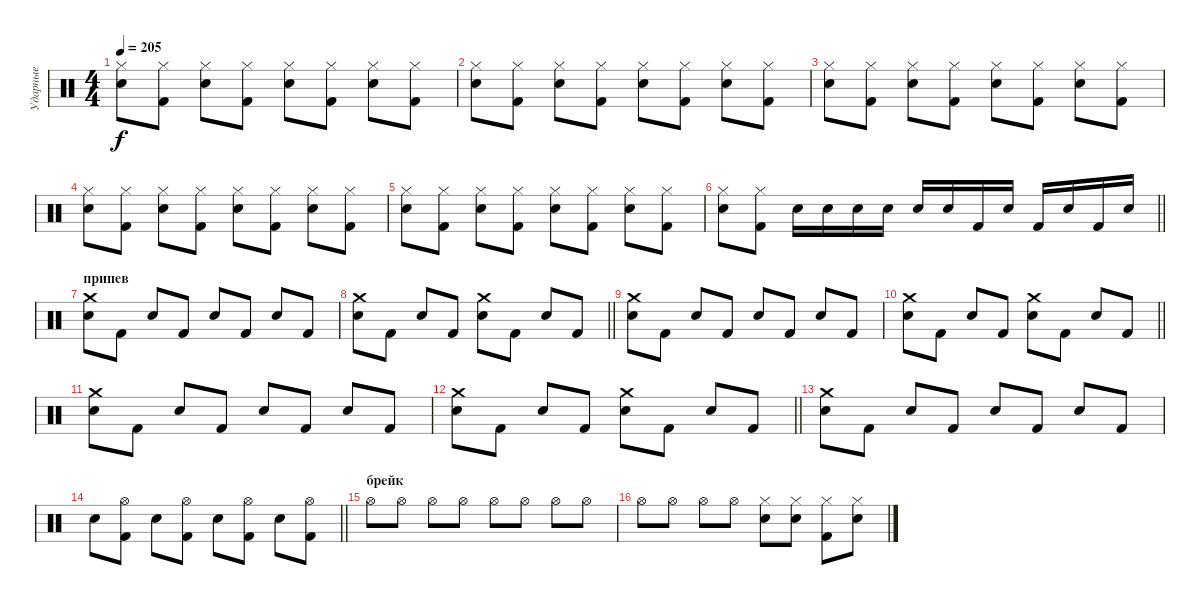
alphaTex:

\track ("Ударные" "Ударные") {instrument percussion}
\staff {score}
\articulation defaults
\ts (4 4)
\tempo 205
\clef neutral
\ks c
("Electric Snare (hit)" "Hi-Hat (closed)").8{dy f} ("Kick (hit) 2" "Hi-Hat (closed)").8 ("Electric Snare (hit)" "Hi-Hat (closed)").8 ("Kick (hit) 2" "Hi-Hat (closed)").8 ("Electric Snare (hit)" "Hi-Hat (closed)").8 ("Kick (hit) 2" "Hi-Hat (closed)").8 ("Electric Snare (hit)" "Hi-Hat (closed)").8 ("Kick (hit) 2" "Hi-Hat (closed)").8 |
("Electric Snare (hit)" "Hi-Hat (closed)").8 ("Kick (hit) 2" "Hi-Hat (closed)").8 ("Electric Snare (hit)" "Hi-Hat (closed)").8 ("Kick (hit) 2" "Hi-Hat (closed)").8 ("Electric Snare (hit)" "Hi-Hat (closed)").8 ("Kick (hit) 2" "Hi-Hat (closed)").8 ("Electric Snare (hit)" "Hi-Hat (closed)").8 ("Kick (hit) 2" "Hi-Hat (closed)").8 |
("Electric Snare (hit)" "Hi-Hat (closed)").8 ("Kick (hit) 2" "Hi-Hat (closed)").8 ("Electric Snare (hit)" "Hi-Hat (closed)").8 ("Kick (hit) 2" "Hi-Hat (closed)").8 ("Electric Snare (hit)" "Hi-Hat (closed)").8 ("Kick (hit) 2" "Hi-Hat (closed)").8 ("Electric Snare (hit)" "Hi-Hat (closed)").8 ("Kick (hit) 2" "Hi-Hat (closed)").8 |
("Electric Snare (hit)" "Hi-Hat (closed)").8 ("Kick (hit) 2" "Hi-Hat (closed)").8 ("Electric Snare (hit)" "Hi-Hat (closed)").8 ("Kick (hit) 2" "Hi-Hat (closed)").8 ("Electric Snare (hit)" "Hi-Hat (closed)").8 ("Kick (hit) 2" "Hi-Hat (closed)").8 ("Electric Snare (hit)" "Hi-Hat (closed)").8 ("Kick (hit) 2" "Hi-Hat (closed)").8 |
("Electric Snare (hit)" "Hi-Hat (closed)").8 ("Kick (hit) 2" "Hi-Hat (closed)").8 ("Electric Snare (hit)" "Hi-Hat (closed)").8 ("Kick (hit) 2" "Hi-Hat (closed)").8 ("Electric Snare (hit)" "Hi-Hat (closed)").8 ("Kick (hit) 2" "Hi-Hat (closed)").8 ("Electric Snare (hit)" "Hi-Hat (closed)").8 ("Kick (hit) 2" "Hi-Hat (closed)").8 |
\barLineRight lightlight
("Electric Snare (hit)" "Hi-Hat (closed)").8 ("Kick (hit) 2" "Hi-Hat (closed)").8 "Electric Snare (hit)".16 "Snare (hit) 2".16 "Electric Snare (hit)".16 "Snare (hit) 2".16 "Electric Snare (hit)".16 "Snare (hit) 2".16 "Kick (hit) 2".16 "Snare (hit) 2".16 "Kick (hit) 2".16 "Snare (hit) 2".16 "Kick (hit) 2".16 "Snare (hit) 2".16 |
\section ("" "припев")
("Electric Snare (hit)" "Crash medium (hit)").8 "Kick (hit) 2".8 "Electric Snare (hit)".8 "Kick (hit) 2".8 "Electric Snare (hit)".8 "Kick (hit) 2".8 "Electric Snare (hit)".8 "Kick (hit) 2".8 |
\barLineRight lightlight
("Electric Snare (hit)" "Crash medium (hit)").8 "Kick (hit) 2".8 "Electric Snare (hit)".8 "Kick (hit) 2".8 ("Electric Snare (hit)" "Crash medium (hit)").8 "Kick (hit) 2".8 "Electric Snare (hit)".8 "Kick (hit) 2".8 |
("Electric Snare (hit)" "Crash medium (hit)").8 "Kick (hit) 2".8 "Electric Snare (hit)".8 "Kick (hit) 2".8 "Electric Snare (hit)".8 "Kick (hit) 2".8 "Electric Snare (hit)".8 "Kick (hit) 2".8 |
\barLineRight lightlight
("Electric Snare (hit)" "Crash medium (hit)").8 "Kick (hit) 2".8 "Electric Snare (hit)".8 "Kick (hit) 2".8 ("Electric Snare (hit)" "Crash medium (hit)").8 "Kick (hit) 2".8 "Electric Snare (hit)".8 "Kick (hit) 2".8 |
("Electric Snare (hit)" "Crash medium (hit)").8 "Kick (hit) 2".8 "Electric Snare (hit)".8 "Kick (hit) 2".8 "Electric Snare (hit)".8 "Kick (hit) 2".8 "Electric Snare (hit)".8 "Kick (hit) 2".8 |
\barLineRight lightlight
("Electric Snare (hit)" "Crash medium (hit)").8 "Kick (hit) 2".8 "Electric Snare (hit)".8 "Kick (hit) 2".8 ("Electric Snare (hit)" "Crash medium (hit)").8 "Kick (hit) 2".8 "Electric Snare (hit)".8 "Kick (hit) 2".8 |
("Electric Snare (hit)" "Crash medium (hit)").8 "Kick (hit) 2".8 "Electric Snare (hit)".8 "Kick (hit) 2".8 "Electric Snare (hit)".8 "Kick (hit) 2".8 "Electric Snare (hit)".8 "Kick (hit) 2".8 |
\barLineRight lightlight "Electric Snare (hit)".8
("Kick (hit) 2" "Hi-Hat (open)").8 "Electric Snare (hit)".8 ("Kick (hit) 2" "Hi-Hat (open)").8 "Electric Snare (hit)".8 ("Kick (hit) 2" "Hi-Hat (open)").8 "Electric Snare (hit)".8 ("Kick (hit) 2" "Hi-Hat (open)").8 |
\section ("" "брейк")
"Hi-Hat (open)".8 "Hi-Hat (open)".8 "Hi-Hat (open)".8 "Hi-Hat (open)".8 "Hi-Hat (open)".8 "Hi-Hat (open)".8 "Hi-Hat (open)".8 "Hi-Hat (open)".8 |
"Hi-Hat (open)".8 "Hi-Hat (open)".8 "Hi-Hat (open)".8 "Hi-Hat (open)".8 ("Snare (hit) 2" "Hi-Hat (closed)").8 ("Electric Snare (hit)" "Hi-Hat (closed)").8 ("Kick (hit) 2" "Hi-Hat (closed)").8 ("Electric Snare (hit)" "Hi-Hat (closed)").8
